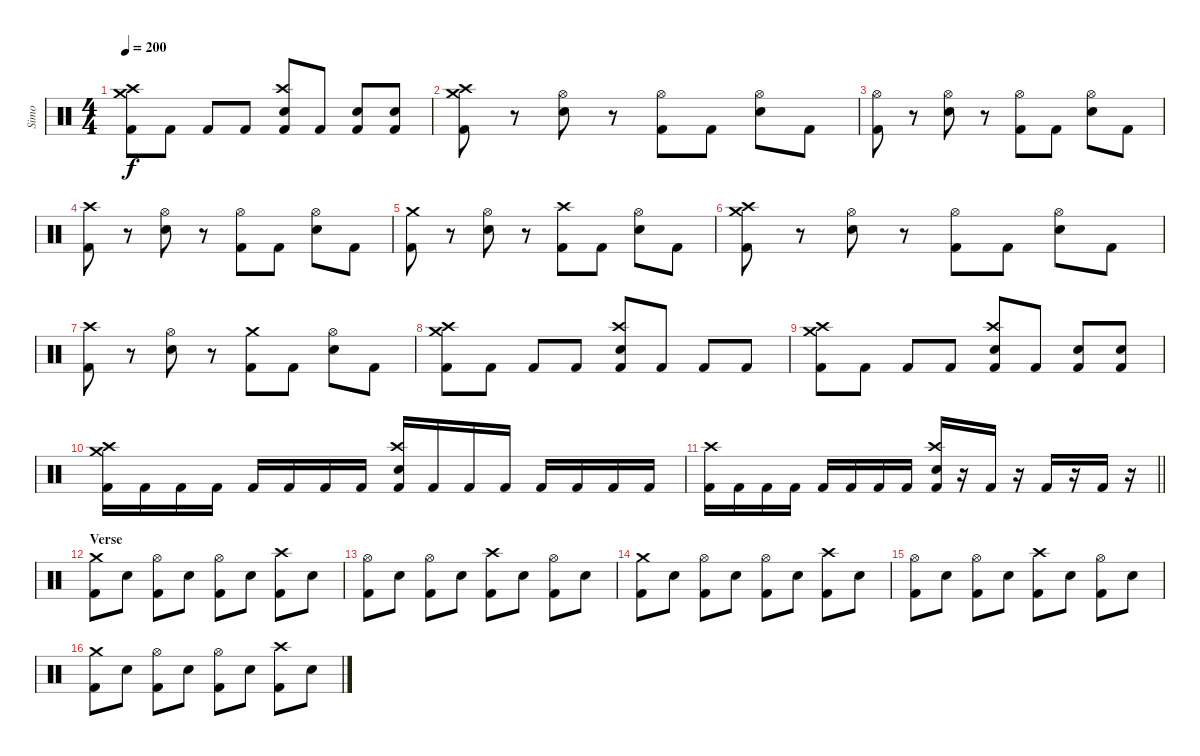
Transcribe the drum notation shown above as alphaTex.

\track ("Simo" "Simo") {instrument percussion bank 121}
\staff {score}
\articulation defaults
\ts (4 4)
\tempo 200
\clef neutral
\ks c
("Kick (hit) 2" "Crash medium (hit)" "Crash high (hit)").8{dy f} "Kick (hit) 2".8 "Kick (hit) 2".8 "Kick (hit) 2".8 ("Kick (hit) 2" "Crash high (hit)" "Electric Snare (hit)").8 "Kick (hit) 2".8 ("Kick (hit) 2" "Electric Snare (hit)").8 ("Kick (hit) 2" "Electric Snare (hit)").8 |
("Kick (hit) 2" "Crash high (hit)" "Crash medium (hit)").8 r.8 ("Electric Snare (hit)" "Hi-Hat (open)").8 r.8 ("Kick (hit) 2" "Hi-Hat (open)").8 "Kick (hit) 2".8 ("Electric Snare (hit)" "Hi-Hat (open)").8 "Kick (hit) 2".8 |
("Kick (hit) 2" "Hi-Hat (open)").8 r.8 ("Electric Snare (hit)" "Hi-Hat (open)").8 r.8 ("Kick (hit) 2" "Hi-Hat (open)").8 "Kick (hit) 2".8 ("Electric Snare (hit)" "Hi-Hat (open)").8 "Kick (hit) 2".8 |
("Kick (hit) 2" "Crash high (hit)").8 r.8 ("Electric Snare (hit)" "Hi-Hat (open)").8 r.8 ("Kick (hit) 2" "Hi-Hat (open)").8 "Kick (hit) 2".8 ("Electric Snare (hit)" "Hi-Hat (open)").8 "Kick (hit) 2".8 |
("Kick (hit) 2" "Crash medium (hit)").8 r.8 ("Electric Snare (hit)" "Hi-Hat (open)").8 r.8 ("Kick (hit) 2" "Crash high (hit)").8 "Kick (hit) 2".8 ("Electric Snare (hit)" "Hi-Hat (open)").8 "Kick (hit) 2".8 |
("Kick (hit) 2" "Crash high (hit)" "Crash medium (hit)").8 r.8 ("Electric Snare (hit)" "Hi-Hat (open)").8 r.8 ("Kick (hit) 2" "Hi-Hat (open)").8 "Kick (hit) 2".8 ("Electric Snare (hit)" "Hi-Hat (open)").8 "Kick (hit) 2".8 |
("Kick (hit) 2" "Crash high (hit)").8 r.8 ("Electric Snare (hit)" "Hi-Hat (open)").8 r.8 ("Kick (hit) 2" "Crash medium (hit)").8 "Kick (hit) 2".8 ("Electric Snare (hit)" "Hi-Hat (open)").8 "Kick (hit) 2".8 |
("Kick (hit) 2" "Crash medium (hit)" "Crash high (hit)").8 "Kick (hit) 2".8 "Kick (hit) 2".8 "Kick (hit) 2".8 ("Kick (hit) 2" "Crash high (hit)" "Electric Snare (hit)").8 "Kick (hit) 2".8 "Kick (hit) 2".8 "Kick (hit) 2".8 |
("Kick (hit) 2" "Crash medium (hit)" "Crash high (hit)").8 "Kick (hit) 2".8 "Kick (hit) 2".8 "Kick (hit) 2".8 ("Kick (hit) 2" "Crash high (hit)" "Electric Snare (hit)").8 "Kick (hit) 2".8 ("Kick (hit) 2" "Electric Snare (hit)").8 ("Kick (hit) 2" "Electric Snare (hit)").8 |
("Kick (hit) 2" "Crash high (hit)" "Crash medium (hit)").16 "Kick (hit) 2".16 "Kick (hit) 2".16 "Kick (hit) 2".16 "Kick (hit) 2".16 "Kick (hit) 2".16 "Kick (hit) 2".16 "Kick (hit) 2".16 ("Kick (hit) 2" "Crash high (hit)" "Electric Snare (hit)").16 "Kick (hit) 2".16 "Kick (hit) 2".16 "Kick (hit) 2".16 "Kick (hit) 2".16 "Kick (hit) 2".16 "Kick (hit) 2".16 "Kick (hit) 2".16 |
\barLineRight lightlight
("Kick (hit) 2" "Crash high (hit)").16 "Kick (hit) 2".16 "Kick (hit) 2".16 "Kick (hit) 2".16 "Kick (hit) 2".16 "Kick (hit) 2".16 "Kick (hit) 2".16 "Kick (hit) 2".16 ("Kick (hit) 2" "Crash high (hit)" "Electric Snare (hit)").16 r.16 "Kick (hit) 2".16 r.16 "Kick (hit) 2".16 r.16 "Kick (hit) 2".16 r.16 |
\section ("" "Verse ")
("Kick (hit) 2" "Crash medium (hit)").8 "Electric Snare (hit)".8 ("Kick (hit) 2" "Hi-Hat (open)").8 "Electric Snare (hit)".8 ("Kick (hit) 2" "Hi-Hat (open)").8 "Electric Snare (hit)".8 ("Kick (hit) 2" "Crash high (hit)").8 "Electric Snare (hit)".8 |
("Kick (hit) 2" "Hi-Hat (open)").8 "Electric Snare (hit)".8 ("Kick (hit) 2" "Hi-Hat (open)").8 "Electric Snare (hit)".8 ("Kick (hit) 2" "Crash high (hit)").8 "Electric Snare (hit)".8 ("Kick (hit) 2" "Hi-Hat (open)").8 "Electric Snare (hit)".8 |
("Kick (hit) 2" "Crash medium (hit)").8 "Electric Snare (hit)".8 ("Kick (hit) 2" "Hi-Hat (open)").8 "Electric Snare (hit)".8 ("Kick (hit) 2" "Hi-Hat (open)").8 "Electric Snare (hit)".8 ("Kick (hit) 2" "Crash high (hit)").8 "Electric Snare (hit)".8 |
("Kick (hit) 2" "Hi-Hat (open)").8 "Electric Snare (hit)".8 ("Kick (hit) 2" "Hi-Hat (open)").8 "Electric Snare (hit)".8 ("Kick (hit) 2" "Crash high (hit)").8 "Electric Snare (hit)".8 ("Kick (hit) 2" "Hi-Hat (open)").8 "Electric Snare (hit)".8 |
("Kick (hit) 2" "Crash medium (hit)").8 "Electric Snare (hit)".8 ("Kick (hit) 2" "Hi-Hat (open)").8 "Electric Snare (hit)".8 ("Kick (hit) 2" "Hi-Hat (open)").8 "Electric Snare (hit)".8 ("Kick (hit) 2" "Crash high (hit)").8 "Electric Snare (hit)".8
